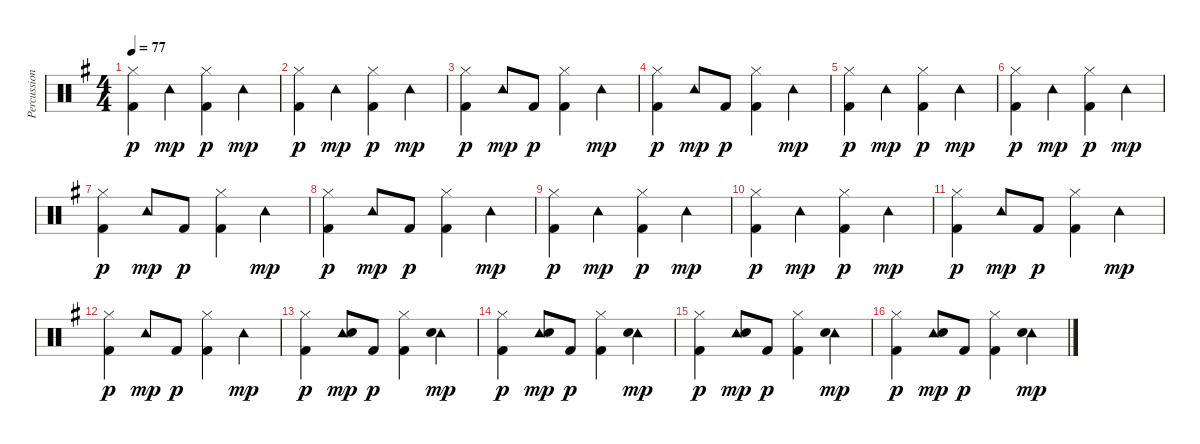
\track ("Percussion" "Percussion") {instrument percussion}
\staff {score}
\articulation defaults
\ts (4 4)
\tempo 77
\clef neutral
\ks g
("Hi-Hat (closed)" "Kick (hit) 2").4{dy p} "Tambourine (hit)".4{dy mp} ("Hi-Hat (closed)" "Kick (hit) 2").4{dy p} "Tambourine (hit)".4{dy mp} |
("Hi-Hat (closed)" "Kick (hit) 2").4{dy p} "Tambourine (hit)".4{dy mp} ("Hi-Hat (closed)" "Kick (hit) 2").4{dy p} "Tambourine (hit)".4{dy mp} |
("Hi-Hat (closed)" "Kick (hit) 2").4{dy p} "Tambourine (hit)".8{dy mp} "Kick (hit) 2".8{dy p} ("Hi-Hat (closed)" "Kick (hit) 2").4 "Tambourine (hit)".4{dy mp} |
("Hi-Hat (closed)" "Kick (hit) 2").4{dy p} "Tambourine (hit)".8{dy mp} "Kick (hit) 2".8{dy p} ("Hi-Hat (closed)" "Kick (hit) 2").4 "Tambourine (hit)".4{dy mp} |
("Hi-Hat (closed)" "Kick (hit) 2").4{dy p} "Tambourine (hit)".4{dy mp} ("Hi-Hat (closed)" "Kick (hit) 2").4{dy p} "Tambourine (hit)".4{dy mp} |
("Hi-Hat (closed)" "Kick (hit) 2").4{dy p} "Tambourine (hit)".4{dy mp} ("Hi-Hat (closed)" "Kick (hit) 2").4{dy p} "Tambourine (hit)".4{dy mp} |
("Hi-Hat (closed)" "Kick (hit) 2").4{dy p} "Tambourine (hit)".8{dy mp} "Kick (hit) 2".8{dy p} ("Hi-Hat (closed)" "Kick (hit) 2").4 "Tambourine (hit)".4{dy mp} |
("Hi-Hat (closed)" "Kick (hit) 2").4{dy p} "Tambourine (hit)".8{dy mp} "Kick (hit) 2".8{dy p} ("Hi-Hat (closed)" "Kick (hit) 2").4 "Tambourine (hit)".4{dy mp} |
("Hi-Hat (closed)" "Kick (hit) 2").4{dy p} "Tambourine (hit)".4{dy mp} ("Hi-Hat (closed)" "Kick (hit) 2").4{dy p} "Tambourine (hit)".4{dy mp} |
("Hi-Hat (closed)" "Kick (hit) 2").4{dy p} "Tambourine (hit)".4{dy mp} ("Hi-Hat (closed)" "Kick (hit) 2").4{dy p} "Tambourine (hit)".4{dy mp} |
("Hi-Hat (closed)" "Kick (hit) 2").4{dy p} "Tambourine (hit)".8{dy mp} "Kick (hit) 2".8{dy p} ("Hi-Hat (closed)" "Kick (hit) 2").4 "Tambourine (hit)".4{dy mp} |
("Hi-Hat (closed)" "Kick (hit) 2").4{dy p} "Tambourine (hit)".8{dy mp} "Kick (hit) 2".8{dy p} ("Hi-Hat (closed)" "Kick (hit) 2").4 "Tambourine (hit)".4{dy mp} |
("Hi-Hat (closed)" "Kick (hit) 2").4{dy p} ("Tambourine (hit)" "Snare (hit) 2").8{dy mp} "Kick (hit) 2".8{dy p} ("Hi-Hat (closed)" "Kick (hit) 2").4 ("Tambourine (hit)" "Snare (hit) 2").4{dy mp} |
("Hi-Hat (closed)" "Kick (hit) 2").4{dy p} ("Tambourine (hit)" "Snare (hit) 2").8{dy mp} "Kick (hit) 2".8{dy p} ("Hi-Hat (closed)" "Kick (hit) 2").4 ("Tambourine (hit)" "Snare (hit) 2").4{dy mp} |
("Hi-Hat (closed)" "Kick (hit) 2").4{dy p} ("Tambourine (hit)" "Snare (hit) 2").8{dy mp} "Kick (hit) 2".8{dy p} ("Hi-Hat (closed)" "Kick (hit) 2").4 ("Tambourine (hit)" "Snare (hit) 2").4{dy mp} |
("Hi-Hat (closed)" "Kick (hit) 2").4{dy p} ("Tambourine (hit)" "Snare (hit) 2").8{dy mp} "Kick (hit) 2".8{dy p} ("Hi-Hat (closed)" "Kick (hit) 2").4 ("Tambourine (hit)" "Snare (hit) 2").4{dy mp}
